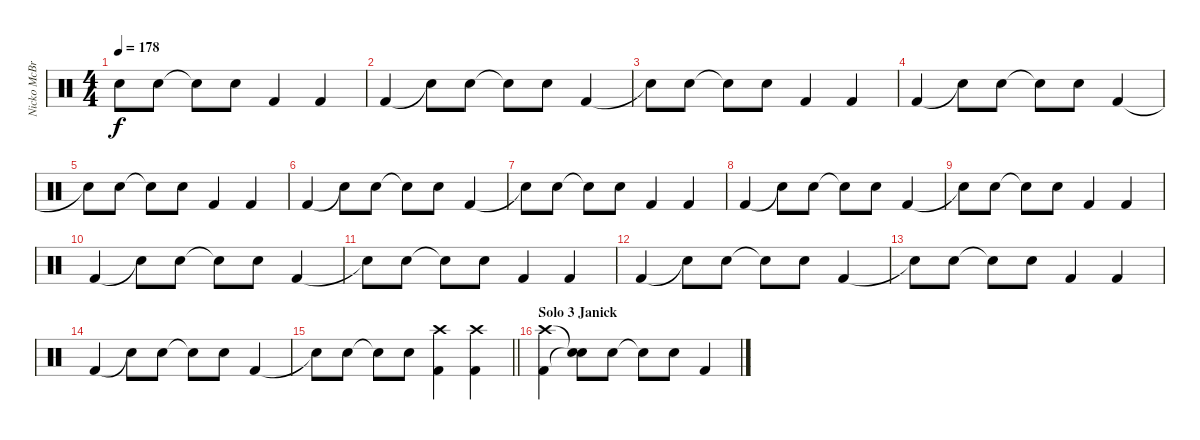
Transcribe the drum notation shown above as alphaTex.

\track ("Nicko McBrian" "Nicko McBr") {instrument percussion}
\staff {score}
\articulation defaults
\ts (4 4)
\tempo 178
\clef neutral
\ks c "Snare (hit)"{t}.8{dy f} "Electric Snare (hit)".8 "Snare (hit)"{t}.8 "Electric Snare (hit)".8 "Kick (hit) 2".4 "Kick (hit) 2".4
|
"Kick (hit) 2".4 "Snare (hit)"{t}.8 "Electric Snare (hit)".8 "Snare (hit)"{t}.8 "Electric Snare (hit)".8 "Kick (hit) 2".4 |
"Snare (hit)"{t}.8 "Electric Snare (hit)".8 "Snare (hit)"{t}.8 "Electric Snare (hit)".8 "Kick (hit) 2".4 "Kick (hit) 2".4 |
"Kick (hit) 2".4 "Snare (hit)"{t}.8 "Electric Snare (hit)".8 "Snare (hit)"{t}.8 "Electric Snare (hit)".8 "Kick (hit) 2".4 |
"Snare (hit)"{t}.8 "Electric Snare (hit)".8 "Snare (hit)"{t}.8 "Electric Snare (hit)".8 "Kick (hit) 2".4 "Kick (hit) 2".4 |
"Kick (hit) 2".4 "Snare (hit)"{t}.8 "Electric Snare (hit)".8 "Snare (hit)"{t}.8 "Electric Snare (hit)".8 "Kick (hit) 2".4 |
"Snare (hit)"{t}.8 "Electric Snare (hit)".8 "Snare (hit)"{t}.8 "Electric Snare (hit)".8 "Kick (hit) 2".4 "Kick (hit) 2".4 |
"Kick (hit) 2".4 "Snare (hit)"{t}.8 "Electric Snare (hit)".8 "Snare (hit)"{t}.8 "Electric Snare (hit)".8 "Kick (hit) 2".4 |
"Snare (hit)"{t}.8 "Electric Snare (hit)".8 "Snare (hit)"{t}.8 "Electric Snare (hit)".8 "Kick (hit) 2".4 "Kick (hit) 2".4 |
"Kick (hit) 2".4 "Snare (hit)"{t}.8 "Electric Snare (hit)".8 "Snare (hit)"{t}.8 "Electric Snare (hit)".8 "Kick (hit) 2".4 |
"Snare (hit)"{t}.8 "Electric Snare (hit)".8 "Snare (hit)"{t}.8 "Electric Snare (hit)".8 "Kick (hit) 2".4 "Kick (hit) 2".4 |
"Kick (hit) 2".4 "Snare (hit)"{t}.8 "Electric Snare (hit)".8 "Snare (hit)"{t}.8 "Electric Snare (hit)".8 "Kick (hit) 2".4 |
"Snare (hit)"{t}.8 "Electric Snare (hit)".8 "Snare (hit)"{t}.8 "Electric Snare (hit)".8 "Kick (hit) 2".4 "Kick (hit) 2".4 |
"Kick (hit) 2".4 "Snare (hit)"{t}.8 "Electric Snare (hit)".8 "Snare (hit)"{t}.8 "Electric Snare (hit)".8 "Kick (hit) 2".4 |
\barLineRight lightlight "Snare (hit)"{t}.8 "Electric Snare (hit)".8 "Snare (hit)"{t}.8 "Electric Snare (hit)".8
("Crash high (hit)" "Kick (hit) 2").4 ("Crash high (hit)" "Kick (hit) 2").4 |
\section ("" "Solo 3 Janick")
("Crash high (hit)" "Kick (hit) 2").4 ("Snare (hit)"{t} "Snare (hit)"{t}).8 "Electric Snare (hit)".8 "Snare (hit)"{t}.8 "Electric Snare (hit)".8 "Kick (hit) 2".4
